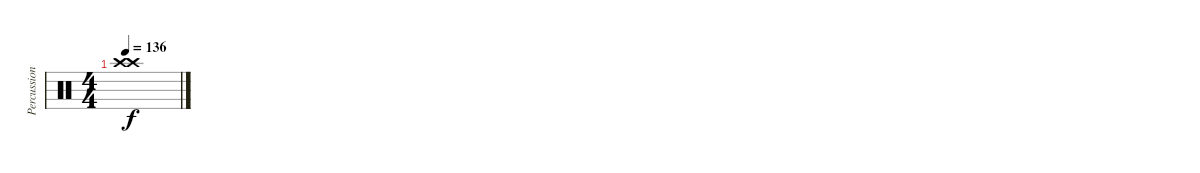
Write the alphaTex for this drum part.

\track ("Percussioni" "Percussion") {instrument percussion}
\staff {score}
\articulation defaults
\ts (4 4)
\tempo 136
\clef neutral
\ks c
("Crash high (hit)" "Crash high (hit)").1{dy f}
